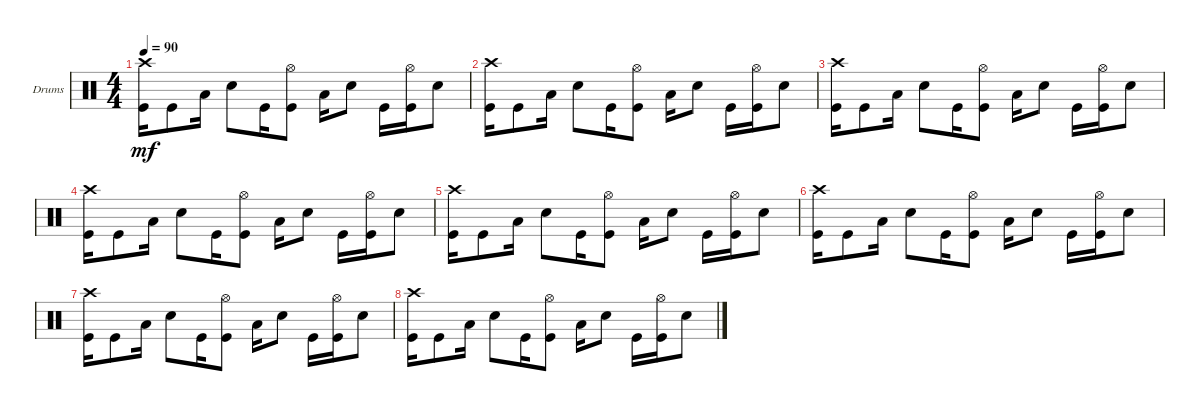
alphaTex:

\bracketExtendMode groupsimilarinstruments
\firstSystemTrackNameOrientation horizontal
\otherSystemsTrackNameOrientation horizontal
\track ("Drumkit" "Drums") {instrument percussion}
\staff {score}
\articulation defaults
\ts (4 4)
\tempo 90
\clef neutral
\scale
0.333333
\ks c
("Kick (hit)" "Crash high (hit)").16{dy mf} "Kick (hit)".8 "Low Tom (hit)".16 "Snare (hit) 2".8 "Kick (hit)".16 ("Kick (hit)" "Hi-Hat (open)").8 "Low Tom (hit)".16 "Snare (hit) 2".8 "Kick (hit)".16 ("Kick (hit)" "Hi-Hat (open)").16 "Snare (hit) 2".8 |
\scale
0.333333 ("Kick (hit)" "Crash high (hit)").16 "Kick (hit)".8 "Low Tom (hit)".16 "Snare (hit) 2".8 "Kick (hit)".16 ("Kick (hit)" "Hi-Hat (open)").8 "Low Tom (hit)".16 "Snare (hit) 2".8 "Kick (hit)".16 ("Kick (hit)" "Hi-Hat (open)").16 "Snare (hit) 2".8 |
("Kick (hit)" "Crash high (hit)").16 "Kick (hit)".8 "Low Tom (hit)".16 "Snare (hit) 2".8 "Kick (hit)".16 ("Kick (hit)" "Hi-Hat (open)").8 "Low Tom (hit)".16 "Snare (hit) 2".8 "Kick (hit)".16 ("Kick (hit)" "Hi-Hat (open)").16 "Snare (hit) 2".8 |
("Kick (hit)" "Crash high (hit)").16 "Kick (hit)".8 "Low Tom (hit)".16 "Snare (hit) 2".8 "Kick (hit)".16 ("Kick (hit)" "Hi-Hat (open)").8 "Low Tom (hit)".16 "Snare (hit) 2".8 "Kick (hit)".16 ("Kick (hit)" "Hi-Hat (open)").16 "Snare (hit) 2".8 |
("Kick (hit)" "Crash high (hit)").16 "Kick (hit)".8 "Low Tom (hit)".16 "Snare (hit) 2".8 "Kick (hit)".16 ("Kick (hit)" "Hi-Hat (open)").8 "Low Tom (hit)".16 "Snare (hit) 2".8 "Kick (hit)".16 ("Kick (hit)" "Hi-Hat (open)").16 "Snare (hit) 2".8 |
("Kick (hit)" "Crash high (hit)").16 "Kick (hit)".8 "Low Tom (hit)".16 "Snare (hit) 2".8 "Kick (hit)".16 ("Kick (hit)" "Hi-Hat (open)").8 "Low Tom (hit)".16 "Snare (hit) 2".8 "Kick (hit)".16 ("Kick (hit)" "Hi-Hat (open)").16 "Snare (hit) 2".8 |
("Kick (hit)" "Crash high (hit)").16 "Kick (hit)".8 "Low Tom (hit)".16 "Snare (hit) 2".8 "Kick (hit)".16 ("Kick (hit)" "Hi-Hat (open)").8 "Low Tom (hit)".16 "Snare (hit) 2".8 "Kick (hit)".16 ("Kick (hit)" "Hi-Hat (open)").16 "Snare (hit) 2".8 |
("Kick (hit)" "Crash high (hit)").16 "Kick (hit)".8 "Low Tom (hit)".16 "Snare (hit) 2".8 "Kick (hit)".16 ("Kick (hit)" "Hi-Hat (open)").8 "Low Tom (hit)".16 "Snare (hit) 2".8 "Kick (hit)".16 ("Kick (hit)" "Hi-Hat (open)").16 "Snare (hit) 2".8
